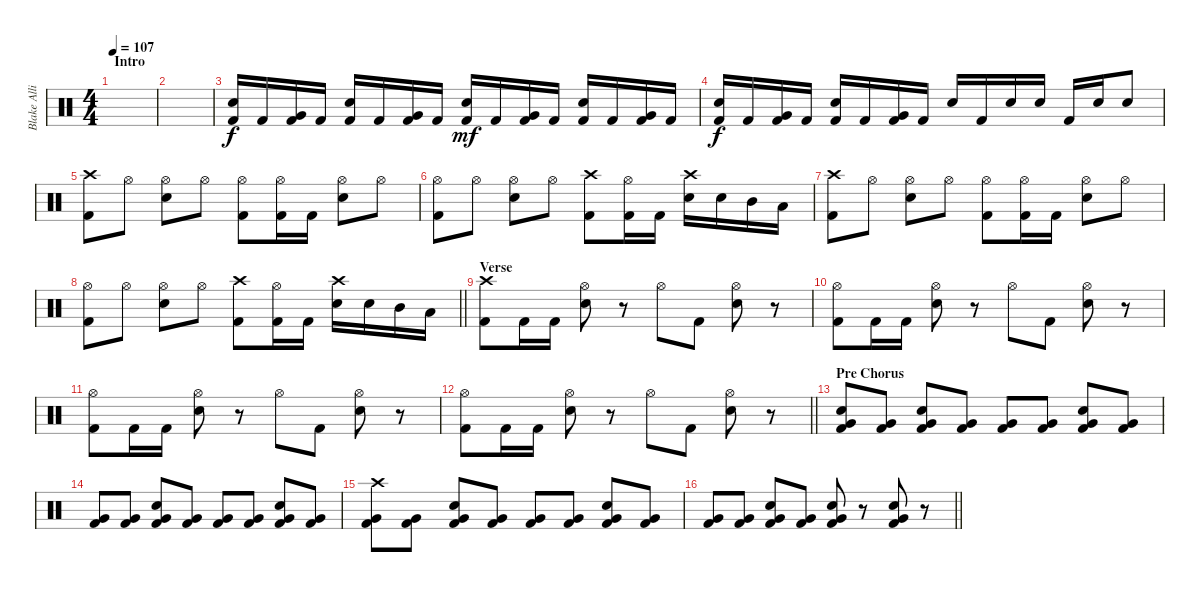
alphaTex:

\track ("Blake Allison" "Blake Alli") {instrument percussion}
\staff {score}
\articulation defaults
\ts (4 4)
\section ("" "Intro")
\tempo 107
\clef neutral
\ks c
|
|
("Electric Snare (hit)" "Kick (hit) 2").16 "Kick (hit) 2".16 ("Very Low Tom (hit)" "Kick (hit) 2").16 "Kick (hit) 2".16 ("Electric Snare (hit)" "Kick (hit) 2").16 "Kick (hit) 2".16 ("Very Low Tom (hit)" "Kick (hit) 2").16 "Kick (hit) 2".16 ("Electric Snare (hit)" "Kick (hit) 2").16{dy mf} "Kick (hit) 2".16 ("Very Low Tom (hit)" "Kick (hit) 2").16 "Kick (hit) 2".16 ("Electric Snare (hit)" "Kick (hit) 2").16 "Kick (hit) 2".16 ("Very Low Tom (hit)" "Kick (hit) 2").16 "Kick (hit) 2".16 |
("Electric Snare (hit)" "Kick (hit) 2").16{dy f} "Kick (hit) 2".16 ("Very Low Tom (hit)" "Kick (hit) 2").16 "Kick (hit) 2".16 ("Electric Snare (hit)" "Kick (hit) 2").16 "Kick (hit) 2".16 ("Very Low Tom (hit)" "Kick (hit) 2").16 "Kick (hit) 2".16 "Electric Snare (hit)".16 "Kick (hit) 2".16 "Electric Snare (hit)".16 "Electric Snare (hit)".16 "Kick (hit) 2".16 "Electric Snare (hit)".16 "Electric Snare (hit)".8 |
("Crash high (hit)" "Kick (hit) 2").8 "Hi-Hat (open)".8 ("Hi-Hat (open)" "Electric Snare (hit)").8 "Hi-Hat (open)".8 ("Hi-Hat (open)" "Kick (hit) 2").8 ("Hi-Hat (open)" "Kick (hit) 2").16 "Kick (hit) 2".16 ("Hi-Hat (open)" "Electric Snare (hit)").8 "Hi-Hat (open)".8 |
("Hi-Hat (open)" "Kick (hit) 2").8 "Hi-Hat (open)".8 ("Hi-Hat (open)" "Electric Snare (hit)").8 "Hi-Hat (open)".8 ("Crash high (hit)" "Kick (hit) 2").8 ("Hi-Hat (open)" "Kick (hit) 2").16 "Kick (hit) 2".16 ("Crash high (hit)" "Electric Snare (hit)").16 "Electric Snare (hit)".16 "Mid Tom (hit)".16 "Low Tom (hit)".16 |
("Crash high (hit)" "Kick (hit) 2").8 "Hi-Hat (open)".8 ("Hi-Hat (open)" "Electric Snare (hit)").8 "Hi-Hat (open)".8 ("Hi-Hat (open)" "Kick (hit) 2").8 ("Hi-Hat (open)" "Kick (hit) 2").16 "Kick (hit) 2".16 ("Hi-Hat (open)" "Electric Snare (hit)").8 "Hi-Hat (open)".8 |
\barLineRight lightlight
("Hi-Hat (open)" "Kick (hit) 2").8 "Hi-Hat (open)".8 ("Hi-Hat (open)" "Electric Snare (hit)").8 "Hi-Hat (open)".8 ("Crash high (hit)" "Kick (hit) 2").8 ("Hi-Hat (open)" "Kick (hit) 2").16 "Kick (hit) 2".16 ("Crash high (hit)" "Electric Snare (hit)").16 "Electric Snare (hit)".16 "Mid Tom (hit)".16 "Low Tom (hit)".16 |
\section ("" "Verse")
("Crash high (hit)" "Kick (hit) 2").8 "Kick (hit) 2".16 "Kick (hit) 2".16 ("Hi-Hat (open)" "Electric Snare (hit)").8 r.8 "Hi-Hat (open)".8 "Kick (hit) 2".8 ("Hi-Hat (open)" "Electric Snare (hit)").8 r.8 |
("Hi-Hat (open)" "Kick (hit) 2").8 "Kick (hit) 2".16 "Kick (hit) 2".16 ("Hi-Hat (open)" "Electric Snare (hit)").8 r.8 "Hi-Hat (open)".8 "Kick (hit) 2".8 ("Hi-Hat (open)" "Electric Snare (hit)").8 r.8 |
("Hi-Hat (open)" "Kick (hit) 2").8 "Kick (hit) 2".16 "Kick (hit) 2".16 ("Hi-Hat (open)" "Electric Snare (hit)").8 r.8 "Hi-Hat (open)".8 "Kick (hit) 2".8 ("Hi-Hat (open)" "Electric Snare (hit)").8 r.8 |
\barLineRight lightlight
("Hi-Hat (open)" "Kick (hit) 2").8 "Kick (hit) 2".16 "Kick (hit) 2".16 ("Hi-Hat (open)" "Electric Snare (hit)").8 r.8 "Hi-Hat (open)".8 "Kick (hit) 2".8 ("Hi-Hat (open)" "Electric Snare (hit)").8 r.8 |
\section ("" "Pre Chorus")
("Electric Snare (hit)" "Very Low Tom (hit)" "Kick (hit) 2").8 ("Very Low Tom (hit)" "Kick (hit) 2").8 ("Electric Snare (hit)" "Very Low Tom (hit)" "Kick (hit) 2").8 ("Very Low Tom (hit)" "Kick (hit) 2").8 ("Very Low Tom (hit)" "Kick (hit) 2").8 ("Very Low Tom (hit)" "Kick (hit) 2").8 ("Electric Snare (hit)" "Very Low Tom (hit)" "Kick (hit) 2").8 ("Very Low Tom (hit)" "Kick (hit) 2").8 |
("Very Low Tom (hit)" "Kick (hit) 2").8 ("Very Low Tom (hit)" "Kick (hit) 2").8 ("Electric Snare (hit)" "Very Low Tom (hit)" "Kick (hit) 2").8 ("Very Low Tom (hit)" "Kick (hit) 2").8 ("Very Low Tom (hit)" "Kick (hit) 2").8 ("Very Low Tom (hit)" "Kick (hit) 2").8 ("Electric Snare (hit)" "Very Low Tom (hit)" "Kick (hit) 2").8 ("Very Low Tom (hit)" "Kick (hit) 2").8 |
("Crash high (hit)" "Very Low Tom (hit)" "Kick (hit) 2").8 ("Very Low Tom (hit)" "Kick (hit) 2").8 ("Electric Snare (hit)" "Very Low Tom (hit)" "Kick (hit) 2").8 ("Very Low Tom (hit)" "Kick (hit) 2").8 ("Very Low Tom (hit)" "Kick (hit) 2").8 ("Very Low Tom (hit)" "Kick (hit) 2").8 ("Electric Snare (hit)" "Very Low Tom (hit)" "Kick (hit) 2").8 ("Very Low Tom (hit)" "Kick (hit) 2").8 |
\barLineRight lightlight
("Very Low Tom (hit)" "Kick (hit) 2").8 ("Very Low Tom (hit)" "Kick (hit) 2").8 ("Electric Snare (hit)" "Very Low Tom (hit)" "Kick (hit) 2").8 ("Very Low Tom (hit)" "Kick (hit) 2").8 ("Electric Snare (hit)" "Very Low Tom (hit)" "Kick (hit) 2").8 r.8 ("Electric Snare (hit)" "Very Low Tom (hit)" "Kick (hit) 2").8 r.8
